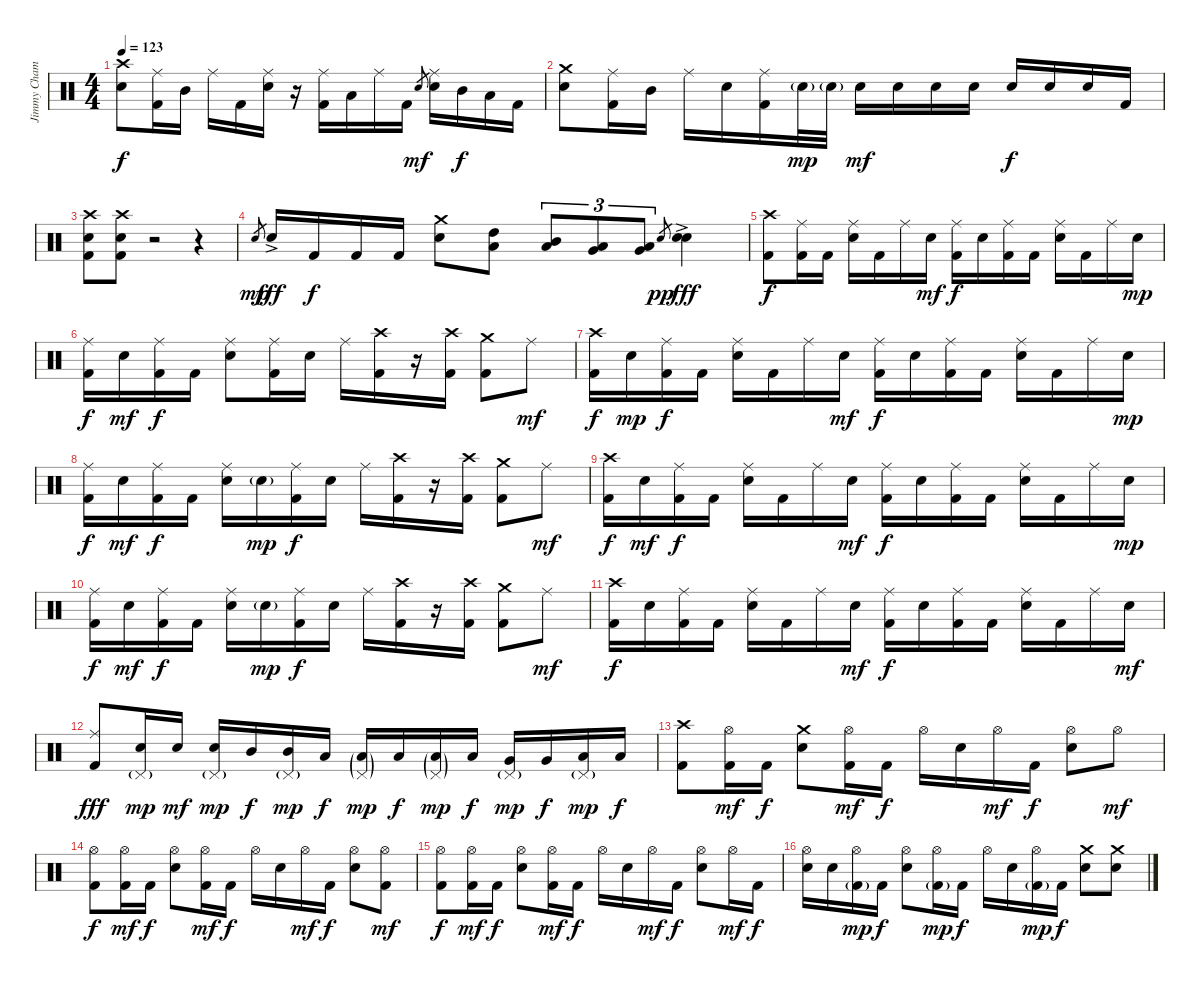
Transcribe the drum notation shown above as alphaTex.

\track ("Jimmy Chamberlin" "Jimmy Cham") {instrument percussion}
\staff {score}
\articulation defaults
\ts (4 4)
\tempo 123
\clef neutral
\ks c
("Crash high (hit)" "Electric Snare (hit)").8{dy f} ("Ride (middle)" "Kick (hit) 2").16 "Mid Tom (hit)".16 "Ride (middle)".16 "Kick (hit) 2".16 ("Ride (middle)" "Electric Snare (hit)").16 r.16 ("Ride (middle)" "Kick (hit) 2").16 "Low Tom (hit)".16 "Ride (middle)".16 "Kick (hit) 2".16 "Electric Snare (hit)".8{gr dy mf} ("Ride (middle)" "Electric Snare (hit)").16 "Mid Tom (hit)".16{dy f} "Low Tom (hit)".16 "Kick (hit) 2".16 |
("Crash medium (hit)" "Electric Snare (hit)").8 ("Ride (middle)" "Kick (hit) 2").16 "Mid Tom (hit)".16 "Ride (middle)".16 "Electric Snare (hit)".16 ("Ride (middle)" "Kick (hit) 2").16 "Electric Snare (hit)"{g}.32{dy mp} "Electric Snare (hit)"{g}.32 "Electric Snare (hit)".16{dy mf} "Electric Snare (hit)".16 "Electric Snare (hit)".16 "Electric Snare (hit)".16 "Electric Snare (hit)".16{dy f} "Electric Snare (hit)".16 "Electric Snare (hit)".16 "Kick (hit) 2".16 |
("Crash high (hit)" "Electric Snare (hit)" "Kick (hit) 2").8 ("Crash high (hit)" "Electric Snare (hit)" "Kick (hit) 2").8 r.2 r.4 |
"Electric Snare (hit)".8{gr dy mp} "Electric Snare (hit)"{ac}.16{dy fff} "Kick (hit) 2".16{dy f} "Kick (hit) 2".16 "Kick (hit) 2".16 ("Crash medium (hit)" "Electric Snare (hit)").8 ("High Tom (hit)" "Low Tom (hit)").8 ("Mid Tom (hit)" "Low Tom (hit)").8{tu (3 2)} ("Low Tom (hit)" "Very Low Tom (hit)").8{tu (3 2)} ("Very Low Tom (hit)" "Low Floor Tom (hit)").8{tu (3 2)} "Electric Snare (hit)".8{gr dy pp} ("Electric Snare (hit)"{ac} "Electric Snare (hit)").4{dy fff} |
("Crash high (hit)" "Kick (hit) 2").8{dy f} ("Ride (middle)" "Kick (hit) 2").16 "Kick (hit) 2".16 ("Ride (middle)" "Electric Snare (hit)").16 "Kick (hit) 2".16 "Ride (middle)".16 "Electric Snare (hit)".16{dy mf} ("Ride (middle)" "Kick (hit) 2").16{dy f} "Electric Snare (hit)".16 ("Ride (middle)" "Kick (hit) 2").16 "Kick (hit) 2".16 ("Ride (middle)" "Electric Snare (hit)").16 "Kick (hit) 2".16 "Ride (middle)".16 "Electric Snare (hit)".16{dy mp} |
("Ride (middle)" "Kick (hit) 2").16{dy f} "Electric Snare (hit)".16{dy mf} ("Ride (middle)" "Kick (hit) 2").16{dy f} "Kick (hit) 2".16 ("Ride (middle)" "Electric Snare (hit)").8 ("Ride (middle)" "Kick (hit) 2").16 "Electric Snare (hit)".16 "Ride (middle)".16 ("Crash high (hit)" "Kick (hit) 2").16 r.16 ("Crash high (hit)" "Kick (hit) 2").16 ("Crash medium (hit)" "Kick (hit) 2").8 "Ride (middle)".8{dy mf} |
("Crash high (hit)" "Kick (hit) 2").16{dy f} "Electric Snare (hit)".16{dy mp} ("Ride (middle)" "Kick (hit) 2").16{dy f} "Kick (hit) 2".16 ("Ride (middle)" "Electric Snare (hit)").16 "Kick (hit) 2".16 "Ride (middle)".16 "Electric Snare (hit)".16{dy mf} ("Ride (middle)" "Kick (hit) 2").16{dy f} "Electric Snare (hit)".16 ("Ride (middle)" "Kick (hit) 2").16 "Kick (hit) 2".16 ("Ride (middle)" "Electric Snare (hit)").16 "Kick (hit) 2".16 "Ride (middle)".16 "Electric Snare (hit)".16{dy mp} |
("Ride (middle)" "Kick (hit) 2").16{dy f} "Electric Snare (hit)".16{dy mf} ("Ride (middle)" "Kick (hit) 2").16{dy f} "Kick (hit) 2".16 ("Ride (middle)" "Electric Snare (hit)").16 "Electric Snare (hit)"{g}.16{dy mp} ("Ride (middle)" "Kick (hit) 2").16{dy f} "Electric Snare (hit)".16 "Ride (middle)".16 ("Crash high (hit)" "Kick (hit) 2").16 r.16 ("Crash high (hit)" "Kick (hit) 2").16 ("Crash medium (hit)" "Kick (hit) 2").8 "Ride (middle)".8{dy mf} |
("Crash high (hit)" "Kick (hit) 2").16{dy f} "Electric Snare (hit)".16{dy mf} ("Ride (middle)" "Kick (hit) 2").16{dy f} "Kick (hit) 2".16 ("Ride (middle)" "Electric Snare (hit)").16 "Kick (hit) 2".16 "Ride (middle)".16 "Electric Snare (hit)".16{dy mf} ("Ride (middle)" "Kick (hit) 2").16{dy f} "Electric Snare (hit)".16 ("Ride (middle)" "Kick (hit) 2").16 "Kick (hit) 2".16 ("Ride (middle)" "Electric Snare (hit)").16 "Kick (hit) 2".16 "Ride (middle)".16 "Electric Snare (hit)".16{dy mp} |
("Ride (middle)" "Kick (hit) 2").16{dy f} "Electric Snare (hit)".16{dy mf} ("Ride (middle)" "Kick (hit) 2").16{dy f} "Kick (hit) 2".16 ("Ride (middle)" "Electric Snare (hit)").16 "Electric Snare (hit)"{g}.16{dy mp} ("Ride (middle)" "Kick (hit) 2").16{dy f} "Electric Snare (hit)".16 "Ride (middle)".16 ("Crash high (hit)" "Kick (hit) 2").16 r.16 ("Crash high (hit)" "Kick (hit) 2").16 ("Crash medium (hit)" "Kick (hit) 2").8 "Ride (middle)".8{dy mf} |
("Crash high (hit)" "Kick (hit) 2").16{dy f} "Electric Snare (hit)".16 ("Ride (middle)" "Kick (hit) 2").16 "Kick (hit) 2".16 ("Ride (middle)" "Electric Snare (hit)").16 "Kick (hit) 2".16 "Ride (middle)".16 "Electric Snare (hit)".16{dy mf} ("Ride (middle)" "Kick (hit) 2").16{dy f} "Electric Snare (hit)".16 ("Ride (middle)" "Kick (hit) 2").16 "Kick (hit) 2".16 ("Ride (middle)" "Electric Snare (hit)").16 "Kick (hit) 2".16 "Ride (middle)".16 "Electric Snare (hit)".16{dy mf} |
("Ride (middle)" "Kick (hit) 2").8{dy fff} ("Pedal Hi-Hat (hit)"{g} "Electric Snare (hit)").16{dy mp} "Electric Snare (hit)".16{dy mf} ("Pedal Hi-Hat (hit)"{g} "Electric Snare (hit)").16{dy mp} "Mid Tom (hit)".16{dy f} ("Pedal Hi-Hat (hit)"{g} "Mid Tom (hit)").16{dy mp} "Low Tom (hit)".16{dy f} ("Pedal Hi-Hat (hit)"{g} "Low Tom (hit)"{g}).16{dy mp} "Low Tom (hit)".16{dy f} ("Pedal Hi-Hat (hit)"{g} "Low Tom (hit)"{g}).16{dy mp} "Low Tom (hit)".16{dy f} ("Pedal Hi-Hat (hit)"{g} "Very Low Tom (hit)").16{dy mp} "Very Low Tom (hit)".16{dy f} ("Pedal Hi-Hat (hit)"{g} "Low Floor Tom (hit)").16{dy mp} "Low Floor Tom (hit)".16{dy f} |
("Crash high (hit)" "Kick (hit) 2").8 ("Hi-Hat (open)" "Kick (hit) 2").16{dy mf} "Kick (hit) 2".16{dy f} ("Crash medium (hit)" "Electric Snare (hit)").8 ("Hi-Hat (open)" "Kick (hit) 2").16{dy mf} "Kick (hit) 2".16{dy f} "Hi-Hat (open)".16 "Electric Snare (hit)".16 "Hi-Hat (open)".16{dy mf} "Kick (hit) 2".16{dy f} ("Hi-Hat (open)" "Electric Snare (hit)").8 "Hi-Hat (open)".8{dy mf} |
("Hi-Hat (open)" "Kick (hit) 2").8{dy f} ("Hi-Hat (open)" "Kick (hit) 2").16{dy mf} "Kick (hit) 2".16{dy f} ("Hi-Hat (open)" "Electric Snare (hit)").8 ("Hi-Hat (open)" "Kick (hit) 2").16{dy mf} "Kick (hit) 2".16{dy f} "Hi-Hat (open)".16 "Electric Snare (hit)".16 "Hi-Hat (open)".16{dy mf} "Kick (hit) 2".16{dy f} ("Hi-Hat (open)" "Electric Snare (hit)").8 ("Hi-Hat (open)" "Kick (hit) 2").8{dy mf} |
("Hi-Hat (open)" "Kick (hit) 2").8{dy f} ("Hi-Hat (open)" "Kick (hit) 2").16{dy mf} "Kick (hit) 2".16{dy f} ("Hi-Hat (open)" "Electric Snare (hit)").8 ("Hi-Hat (open)" "Kick (hit) 2").16{dy mf} "Kick (hit) 2".16{dy f} "Hi-Hat (open)".16 "Electric Snare (hit)".16 "Hi-Hat (open)".16{dy mf} "Kick (hit) 2".16{dy f} ("Hi-Hat (open)" "Electric Snare (hit)").8 "Hi-Hat (open)".16{dy mf} "Kick (hit) 2".16{dy f} |
("Hi-Hat (open)" "Electric Snare (hit)").16 "Electric Snare (hit)".16 ("Hi-Hat (open)" "Kick (hit) 2"{g}).16{dy mp} "Kick (hit) 2".16{dy f} ("Hi-Hat (open)" "Electric Snare (hit)").8 ("Hi-Hat (open)" "Kick (hit) 2"{g}).16{dy mp} "Kick (hit) 2".16{dy f} "Hi-Hat (open)".16 "Electric Snare (hit)".16 ("Hi-Hat (open)" "Kick (hit) 2"{g}).16{dy mp} "Kick (hit) 2".16{dy f} ("Crash medium (hit)" "Electric Snare (hit)").8 ("Crash medium (hit)" "Electric Snare (hit)").8
